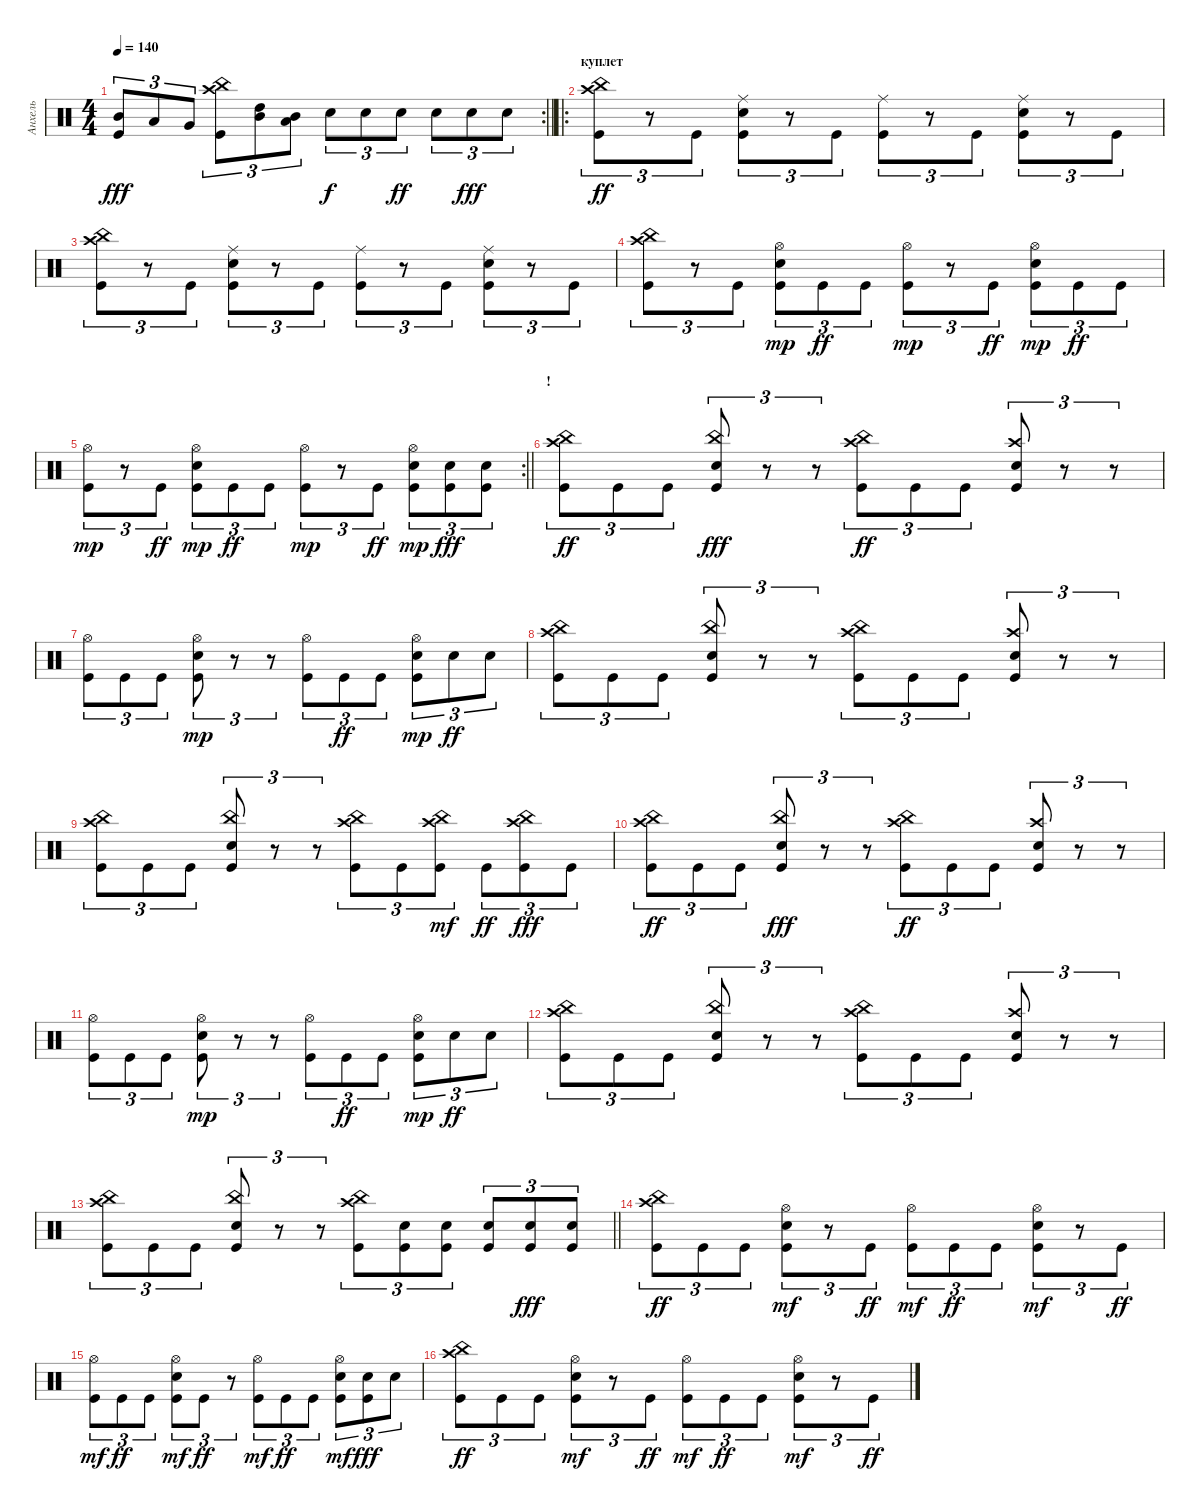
\track ("Анхель" "Анхель") {instrument percussion}
\staff {score}
\articulation defaults
\rc 2
\ts (4 4)
\tempo 140
\clef neutral
\barLineRight lightlight
\ks c
("Kick (hit)" "Mid Tom (hit)").8{tu (3 2) dy fff} "Low Tom (hit)".8{tu (3 2)} "Very Low Tom (hit)".8{tu (3 2)} ("Kick (hit)" "China (hit)" "Crash high (hit)").8{tu (3 2)} ("High Tom (hit)" "Mid Tom (hit)").8{tu (3 2)} ("Mid Tom (hit)" "Low Tom (hit)").8{tu (3 2)} "Snare (hit) 2".8{tu (3 2) dy f} "Snare (hit) 2".8{tu (3 2)} "Snare (hit) 2".8{tu (3 2) dy ff} "Snare (hit) 2".8{tu (3 2)} "Snare (hit) 2".8{tu (3 2) dy fff} "Snare (hit) 2".8{tu (3 2)} |
\ro
\section ("" "куплет")
("Kick (hit)" "China (hit)" "Crash high (hit)").8{tu (3 2) dy ff} r.8{tu (3 2)} "Kick (hit)".8{tu (3 2)} ("Kick (hit)" "Snare (hit) 2" "Ride (middle)").8{tu (3 2)} r.8{tu (3 2)} "Kick (hit)".8{tu (3 2)} ("Kick (hit)" "Ride (middle)").8{tu (3 2)} r.8{tu (3 2)} "Kick (hit)".8{tu (3 2)} ("Kick (hit)" "Snare (hit) 2" "Ride (middle)").8{tu (3 2)} r.8{tu (3 2)} "Kick (hit)".8{tu (3 2)} |
("Kick (hit)" "China (hit)" "Crash high (hit)").8{tu (3 2)} r.8{tu (3 2)} "Kick (hit)".8{tu (3 2)} ("Kick (hit)" "Snare (hit) 2" "Ride (middle)").8{tu (3 2)} r.8{tu (3 2)} "Kick (hit)".8{tu (3 2)} ("Kick (hit)" "Ride (middle)").8{tu (3 2)} r.8{tu (3 2)} "Kick (hit)".8{tu (3 2)} ("Kick (hit)" "Snare (hit) 2" "Ride (middle)").8{tu (3 2)} r.8{tu (3 2)} "Kick (hit)".8{tu (3 2)} |
("Kick (hit)" "China (hit)" "Crash high (hit)").8{tu (3 2)} r.8{tu (3 2)} "Kick (hit)".8{tu (3 2)} ("Kick (hit)" "Snare (hit) 2" "Hi-Hat (open)").8{tu (3 2) dy mp} "Kick (hit)".8{tu (3 2) dy ff} "Kick (hit)".8{tu (3 2)} ("Kick (hit)" "Hi-Hat (open)").8{tu (3 2) dy mp} r.8{tu (3 2)} "Kick (hit)".8{tu (3 2) dy ff} ("Kick (hit)" "Snare (hit) 2" "Hi-Hat (open)").8{tu (3 2) dy mp} "Kick (hit)".8{tu (3 2) dy ff} "Kick (hit)".8{tu (3 2)} |
\rc 2
\barLineRight lightlight
("Kick (hit)" "Hi-Hat (open)").8{tu (3 2) dy mp} r.8{tu (3 2)} "Kick (hit)".8{tu (3 2) dy ff} ("Kick (hit)" "Snare (hit) 2" "Hi-Hat (open)").8{tu (3 2) dy mp} "Kick (hit)".8{tu (3 2) dy ff} "Kick (hit)".8{tu (3 2)} ("Kick (hit)" "Hi-Hat (open)").8{tu (3 2) dy mp} r.8{tu (3 2)} "Kick (hit)".8{tu (3 2) dy ff} ("Kick (hit)" "Snare (hit) 2" "Hi-Hat (open)").8{tu (3 2) dy mp} ("Kick (hit)" "Snare (hit) 2").8{tu (3 2) dy fff} ("Kick (hit)" "Snare (hit) 2").8{tu (3 2)} |
\section ("" "!")
("Kick (hit)" "China (hit)" "Crash high (hit)").8{tu (3 2) dy ff} "Kick (hit)".8{tu (3 2)} "Kick (hit)".8{tu (3 2)} ("Kick (hit)" "Snare (hit) 2" "China (hit)").8{tu (3 2) dy fff} r.8{tu (3 2)} r.8{tu (3 2)} ("Kick (hit)" "China (hit)" "Crash high (hit)").8{tu (3 2) dy ff} "Kick (hit)".8{tu (3 2)} "Kick (hit)".8{tu (3 2)} ("Kick (hit)" "Snare (hit) 2" "Crash high (hit)").8{tu (3 2)} r.8{tu (3 2)} r.8{tu (3 2)} |
("Kick (hit)" "Hi-Hat (open)").8{tu (3 2)} "Kick (hit)".8{tu (3 2)} "Kick (hit)".8{tu (3 2)} ("Kick (hit)" "Snare (hit) 2" "Hi-Hat (open)").8{tu (3 2) dy mp} r.8{tu (3 2)} r.8{tu (3 2)} ("Kick (hit)" "Hi-Hat (open)").8{tu (3 2)} "Kick (hit)".8{tu (3 2) dy ff} "Kick (hit)".8{tu (3 2)} ("Kick (hit)" "Snare (hit) 2" "Hi-Hat (open)").8{tu (3 2) dy mp} "Snare (hit) 2".8{tu (3 2) dy ff} "Snare (hit) 2".8{tu (3 2)} |
("Kick (hit)" "China (hit)" "Crash high (hit)").8{tu (3 2)} "Kick (hit)".8{tu (3 2)} "Kick (hit)".8{tu (3 2)} ("Kick (hit)" "Snare (hit) 2" "China (hit)").8{tu (3 2)} r.8{tu (3 2)} r.8{tu (3 2)} ("Kick (hit)" "China (hit)" "Crash high (hit)").8{tu (3 2)} "Kick (hit)".8{tu (3 2)} "Kick (hit)".8{tu (3 2)} ("Kick (hit)" "Snare (hit) 2" "Crash high (hit)").8{tu (3 2)} r.8{tu (3 2)} r.8{tu (3 2)} |
("Kick (hit)" "China (hit)" "Crash high (hit)").8{tu (3 2)} "Kick (hit)".8{tu (3 2)} "Kick (hit)".8{tu (3 2)} ("Kick (hit)" "Snare (hit) 2" "China (hit)").8{tu (3 2)} r.8{tu (3 2)} r.8{tu (3 2)} ("Kick (hit)" "China (hit)" "Crash high (hit)").8{tu (3 2)} "Kick (hit)".8{tu (3 2)} ("Kick (hit)" "Crash high (hit)" "China (hit)").8{tu (3 2) dy mf} "Kick (hit)".8{tu (3 2) dy ff} ("Kick (hit)" "China (hit)" "Crash high (hit)").8{tu (3 2) dy fff} "Kick (hit)".8{tu (3 2)} |
("Kick (hit)" "China (hit)" "Crash high (hit)").8{tu (3 2) dy ff} "Kick (hit)".8{tu (3 2)} "Kick (hit)".8{tu (3 2)} ("Kick (hit)" "Snare (hit) 2" "China (hit)").8{tu (3 2) dy fff} r.8{tu (3 2)} r.8{tu (3 2)} ("Kick (hit)" "China (hit)" "Crash high (hit)").8{tu (3 2) dy ff} "Kick (hit)".8{tu (3 2)} "Kick (hit)".8{tu (3 2)} ("Kick (hit)" "Snare (hit) 2" "Crash high (hit)").8{tu (3 2)} r.8{tu (3 2)} r.8{tu (3 2)} |
("Kick (hit)" "Hi-Hat (open)").8{tu (3 2)} "Kick (hit)".8{tu (3 2)} "Kick (hit)".8{tu (3 2)} ("Kick (hit)" "Snare (hit) 2" "Hi-Hat (open)").8{tu (3 2) dy mp} r.8{tu (3 2)} r.8{tu (3 2)} ("Kick (hit)" "Hi-Hat (open)").8{tu (3 2)} "Kick (hit)".8{tu (3 2) dy ff} "Kick (hit)".8{tu (3 2)} ("Kick (hit)" "Snare (hit) 2" "Hi-Hat (open)").8{tu (3 2) dy mp} "Snare (hit) 2".8{tu (3 2) dy ff} "Snare (hit) 2".8{tu (3 2)} |
("Kick (hit)" "China (hit)" "Crash high (hit)").8{tu (3 2)} "Kick (hit)".8{tu (3 2)} "Kick (hit)".8{tu (3 2)} ("Kick (hit)" "Snare (hit) 2" "China (hit)").8{tu (3 2)} r.8{tu (3 2)} r.8{tu (3 2)} ("Kick (hit)" "China (hit)" "Crash high (hit)").8{tu (3 2)} "Kick (hit)".8{tu (3 2)} "Kick (hit)".8{tu (3 2)} ("Kick (hit)" "Snare (hit) 2" "Crash high (hit)").8{tu (3 2)} r.8{tu (3 2)} r.8{tu (3 2)} |
\barLineRight lightlight
("Kick (hit)" "China (hit)" "Crash high (hit)").8{tu (3 2)} "Kick (hit)".8{tu (3 2)} "Kick (hit)".8{tu (3 2)} ("Kick (hit)" "Snare (hit) 2" "China (hit)").8{tu (3 2)} r.8{tu (3 2)} r.8{tu (3 2)} ("Kick (hit)" "China (hit)" "Crash high (hit)").8{tu (3 2)} ("Kick (hit)" "Snare (hit) 2").8{tu (3 2)} ("Kick (hit)" "Snare (hit) 2").8{tu (3 2)} ("Kick (hit)" "Snare (hit) 2").8{tu (3 2)} ("Kick (hit)" "Snare (hit) 2").8{tu (3 2) dy fff} ("Kick (hit)" "Snare (hit) 2").8{tu (3 2)} |
("Kick (hit)" "China (hit)" "Crash high (hit)").8{tu (3 2) dy ff} "Kick (hit)".8{tu (3 2)} "Kick (hit)".8{tu (3 2)} ("Kick (hit)" "Snare (hit) 2" "Hi-Hat (open)").8{tu (3 2) dy mf} r.8{tu (3 2)} "Kick (hit)".8{tu (3 2) dy ff} ("Kick (hit)" "Hi-Hat (open)").8{tu (3 2) dy mf} "Kick (hit)".8{tu (3 2) dy ff} "Kick (hit)".8{tu (3 2)} ("Kick (hit)" "Snare (hit) 2" "Hi-Hat (open)").8{tu (3 2) dy mf} r.8{tu (3 2)} "Kick (hit)".8{tu (3 2) dy ff} |
("Kick (hit)" "Hi-Hat (open)").8{tu (3 2) dy mf} "Kick (hit)".8{tu (3 2) dy ff} "Kick (hit)".8{tu (3 2)} ("Kick (hit)" "Snare (hit) 2" "Hi-Hat (open)").8{tu (3 2) dy mf} "Kick (hit)".8{tu (3 2) dy ff} r.8{tu (3 2)} ("Kick (hit)" "Hi-Hat (open)").8{tu (3 2) dy mf} "Kick (hit)".8{tu (3 2) dy ff} "Kick (hit)".8{tu (3 2)} ("Kick (hit)" "Snare (hit) 2" "Hi-Hat (open)").8{tu (3 2) dy mf} ("Kick (hit)" "Snare (hit) 2").8{tu (3 2) dy fff} "Snare (hit) 2".8{tu (3 2)} |
("Kick (hit)" "China (hit)" "Crash high (hit)").8{tu (3 2) dy ff} "Kick (hit)".8{tu (3 2)} "Kick (hit)".8{tu (3 2)} ("Kick (hit)" "Snare (hit) 2" "Hi-Hat (open)").8{tu (3 2) dy mf} r.8{tu (3 2)} "Kick (hit)".8{tu (3 2) dy ff} ("Kick (hit)" "Hi-Hat (open)").8{tu (3 2) dy mf} "Kick (hit)".8{tu (3 2) dy ff} "Kick (hit)".8{tu (3 2)} ("Kick (hit)" "Snare (hit) 2" "Hi-Hat (open)").8{tu (3 2) dy mf} r.8{tu (3 2)} "Kick (hit)".8{tu (3 2) dy ff}
